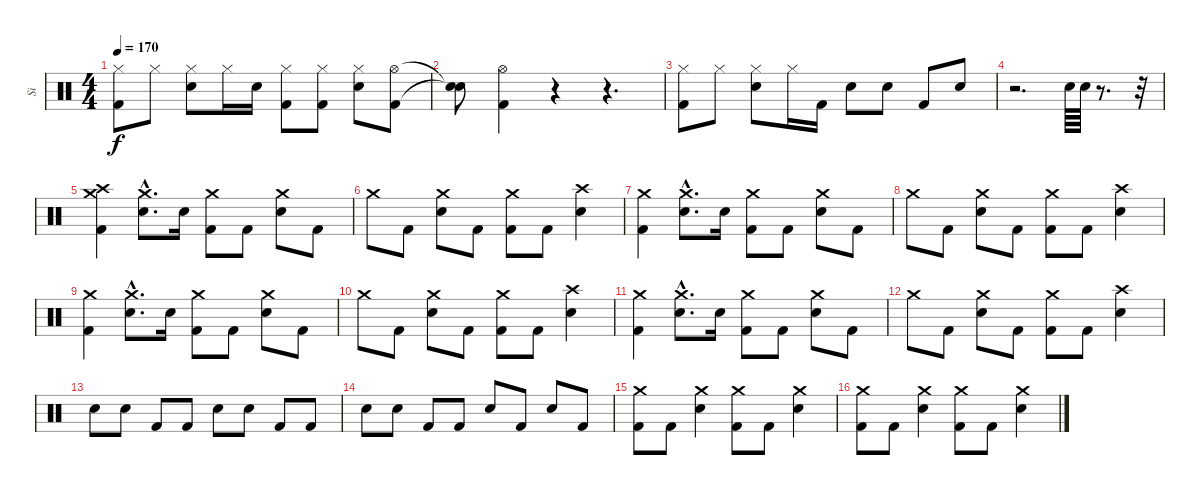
\track ("Si" "Si") {instrument percussion}
\staff {score}
\articulation defaults
\ts (4 4)
\tempo 170
\clef neutral
\ks c
("Hi-Hat (closed)" "Kick (hit) 2").8{dy f} "Hi-Hat (closed)".8 ("Hi-Hat (closed)" "Electric Snare (hit)").8 "Hi-Hat (closed)".16 "Electric Snare (hit)".16 ("Hi-Hat (closed)" "Kick (hit) 2").8 ("Hi-Hat (closed)" "Kick (hit) 2").8 ("Hi-Hat (closed)" "Electric Snare (hit)").8 ("Hi-Hat (open)" "Kick (hit) 2").8 |
("Snare (hit)"{t} "Snare (hit)"{t}).8 ("Hi-Hat (open)" "Kick (hit) 2").4 r.4 r.4{d} |
("Hi-Hat (closed)" "Kick (hit) 2").8 "Hi-Hat (closed)".8 ("Hi-Hat (closed)" "Electric Snare (hit)").8 "Hi-Hat (closed)".16 "Kick (hit) 2".16 "Electric Snare (hit)".8 "Electric Snare (hit)".8 "Kick (hit) 2".8 "Electric Snare (hit)".8 |
r.2{d} "Electric Snare (hit)".64 "Electric Snare (hit)".64 r.8{d} r.32 |
("Crash medium (hit)" "Crash high (hit)" "Kick (hit) 2").4 ("Crash medium (hit)"{hac} "Electric Snare (hit)"{hac}).8{d} "Electric Snare (hit)".16 ("Crash medium (hit)" "Kick (hit) 2").8 "Kick (hit) 2".8 ("Crash medium (hit)" "Electric Snare (hit)").8 "Kick (hit) 2".8 |
"Crash medium (hit)".8 "Kick (hit) 2".8 ("Crash medium (hit)" "Electric Snare (hit)").8 "Kick (hit) 2".8 ("Crash medium (hit)" "Kick (hit) 2").8 "Kick (hit) 2".8 ("Crash high (hit)" "Electric Snare (hit)").4 |
("Crash medium (hit)" "Kick (hit) 2").4 ("Crash medium (hit)"{hac} "Electric Snare (hit)"{hac}).8{d} "Electric Snare (hit)".16 ("Crash medium (hit)" "Kick (hit) 2").8 "Kick (hit) 2".8 ("Crash medium (hit)" "Electric Snare (hit)").8 "Kick (hit) 2".8 |
"Crash medium (hit)".8 "Kick (hit) 2".8 ("Crash medium (hit)" "Electric Snare (hit)").8 "Kick (hit) 2".8 ("Crash medium (hit)" "Kick (hit) 2").8 "Kick (hit) 2".8 ("Crash high (hit)" "Electric Snare (hit)").4 |
("Crash medium (hit)" "Kick (hit) 2").4 ("Crash medium (hit)"{hac} "Electric Snare (hit)"{hac}).8{d} "Electric Snare (hit)".16 ("Crash medium (hit)" "Kick (hit) 2").8 "Kick (hit) 2".8 ("Crash medium (hit)" "Electric Snare (hit)").8 "Kick (hit) 2".8 |
"Crash medium (hit)".8 "Kick (hit) 2".8 ("Crash medium (hit)" "Electric Snare (hit)").8 "Kick (hit) 2".8 ("Crash medium (hit)" "Kick (hit) 2").8 "Kick (hit) 2".8 ("Crash high (hit)" "Electric Snare (hit)").4 |
("Crash medium (hit)" "Kick (hit) 2").4 ("Crash medium (hit)"{hac} "Electric Snare (hit)"{hac}).8{d} "Electric Snare (hit)".16 ("Crash medium (hit)" "Kick (hit) 2").8 "Kick (hit) 2".8 ("Crash medium (hit)" "Electric Snare (hit)").8 "Kick (hit) 2".8 |
"Crash medium (hit)".8 "Kick (hit) 2".8 ("Crash medium (hit)" "Electric Snare (hit)").8 "Kick (hit) 2".8 ("Crash medium (hit)" "Kick (hit) 2").8 "Kick (hit) 2".8 ("Crash high (hit)" "Electric Snare (hit)").4 |
"Electric Snare (hit)".8 "Electric Snare (hit)".8 "Kick (hit) 2".8 "Kick (hit) 2".8 "Electric Snare (hit)".8 "Electric Snare (hit)".8 "Kick (hit) 2".8 "Kick (hit) 2".8 |
"Electric Snare (hit)".8 "Electric Snare (hit)".8 "Kick (hit) 2".8 "Kick (hit) 2".8 "Electric Snare (hit)".8 "Kick (hit) 2".8 "Electric Snare (hit)".8 "Kick (hit) 2".8 |
("Crash medium (hit)" "Kick (hit) 2").8 "Kick (hit) 2".8 ("Crash medium (hit)" "Electric Snare (hit)").4 ("Crash medium (hit)" "Kick (hit) 2").8 "Kick (hit) 2".8 ("Crash medium (hit)" "Electric Snare (hit)").4 |
("Crash medium (hit)" "Kick (hit) 2").8 "Kick (hit) 2".8 ("Crash medium (hit)" "Electric Snare (hit)").4 ("Crash medium (hit)" "Kick (hit) 2").8 "Kick (hit) 2".8 ("Crash medium (hit)" "Electric Snare (hit)").4
